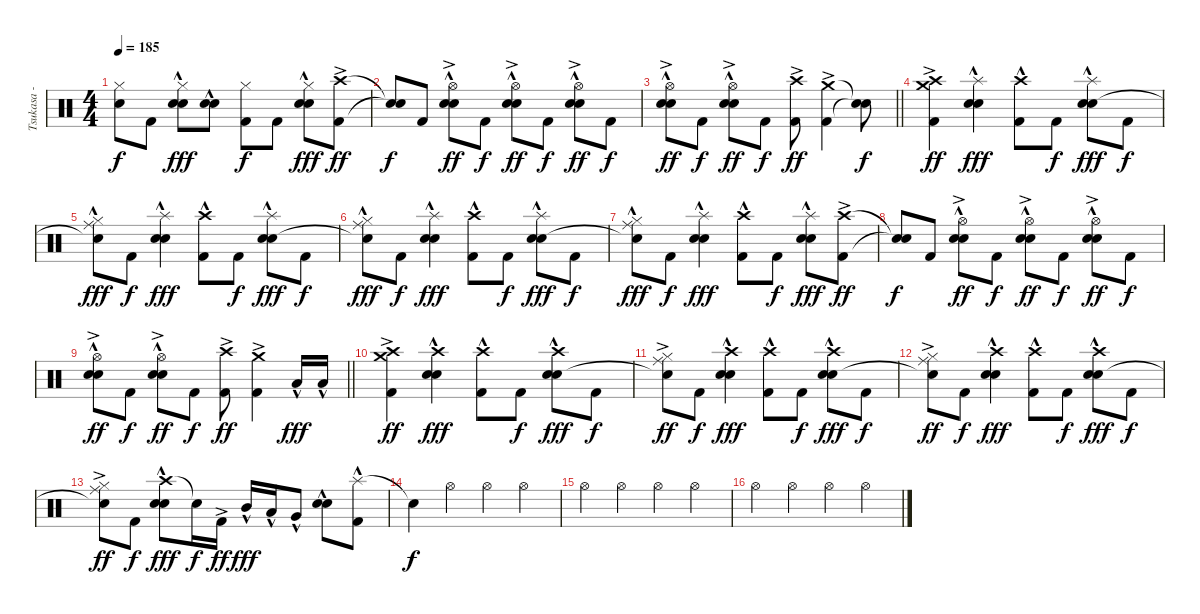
\track ("Tsukasa - Drums" "Tsukasa - ") {instrument percussion}
\staff {score}
\articulation defaults
\ts (4 4)
\tempo 185
\clef neutral
\ks c
("Hi-Hat (closed)" "Snare (hit)"{t}).8{dy f} "Kick (hit) 2".8 ("Hi-Hat (closed)" "Electric Snare (hit)"{hac} "Snare (hit) 2"{hac}).8{dy fff} ("Electric Snare (hit)"{hac} "Snare (hit) 2"{hac}).8 ("Hi-Hat (closed)" "Kick (hit) 2").8{dy f} "Kick (hit) 2".8 ("Hi-Hat (closed)" "Electric Snare (hit)"{hac} "Snare (hit) 2"{hac}).8{dy fff} ("Crash high (hit)"{ac} "Kick (hit) 2").8{dy ff} |
("Snare (hit)"{t} "Snare (hit)"{t}).8{dy f} "Kick (hit) 2".8 ("Hi-Hat (open)" "Electric Snare (hit)"{hac} "Snare (hit) 2"{ac}).8{dy ff} "Kick (hit) 2".8{dy f} ("Hi-Hat (open)" "Electric Snare (hit)"{hac} "Snare (hit) 2"{ac}).8{dy ff} "Kick (hit) 2".8{dy f} ("Hi-Hat (open)" "Electric Snare (hit)"{hac} "Snare (hit) 2"{ac}).8{dy ff} "Kick (hit) 2".8{dy f} |
\barLineRight lightlight
("Hi-Hat (open)" "Electric Snare (hit)"{hac} "Snare (hit) 2"{ac}).8{dy ff} "Kick (hit) 2".8{dy f} ("Hi-Hat (open)" "Electric Snare (hit)"{hac} "Snare (hit) 2"{ac}).8{dy ff} "Kick (hit) 2".8{dy f} ("Crash high (hit)"{ac} "Kick (hit) 2").8{dy ff} ("Crash medium (hit)"{ac} "Kick (hit) 2").4 ("Snare (hit)"{t} "Snare (hit)"{t}).8{dy f} |
\section ("" "")
("Crash medium (hit)"{ac} "Crash high (hit)" "Kick (hit) 2").4{dy ff} ("Splash (hit)"{hac} "Electric Snare (hit)"{hac} "Snare (hit) 2"{hac}).4{dy fff} ("Crash high (hit)"{hac} "Kick (hit) 2").8 "Kick (hit) 2".8{dy f} ("Splash (hit)"{hac} "Electric Snare (hit)"{hac} "Snare (hit) 2"{hac}).8{dy fff} "Kick (hit) 2".8{dy f} |
("Hi-Hat (closed)"{hac} "Ride (middle)" "Snare (hit)"{t}).8{dy fff} "Kick (hit) 2".8{dy f} ("Splash (hit)"{hac} "Electric Snare (hit)"{hac} "Snare (hit) 2"{hac}).4{dy fff} ("Crash high (hit)"{hac} "Kick (hit) 2").8 "Kick (hit) 2".8{dy f} ("Splash (hit)"{hac} "Electric Snare (hit)"{hac} "Snare (hit) 2"{hac}).8{dy fff} "Kick (hit) 2".8{dy f} |
("Hi-Hat (closed)"{hac} "Ride (middle)" "Snare (hit)"{t}).8{dy fff} "Kick (hit) 2".8{dy f} ("Splash (hit)"{hac} "Electric Snare (hit)"{hac} "Snare (hit) 2"{hac}).4{dy fff} ("Crash high (hit)"{hac} "Kick (hit) 2").8 "Kick (hit) 2".8{dy f} ("Splash (hit)"{hac} "Electric Snare (hit)"{hac} "Snare (hit) 2"{hac}).8{dy fff} "Kick (hit) 2".8{dy f} |
("Hi-Hat (closed)"{hac} "Ride (middle)" "Snare (hit)"{t}).8{dy fff} "Kick (hit) 2".8{dy f} ("Splash (hit)"{hac} "Electric Snare (hit)"{hac} "Snare (hit) 2"{hac}).4{dy fff} ("Crash high (hit)"{hac} "Kick (hit) 2").8 "Kick (hit) 2".8{dy f} ("Splash (hit)"{hac} "Electric Snare (hit)"{hac} "Snare (hit) 2"{hac}).8{dy fff} ("Crash high (hit)"{ac} "Kick (hit) 2").8{dy ff} |
("Snare (hit)"{t} "Snare (hit)"{t}).8{dy f} "Kick (hit) 2".8 ("Hi-Hat (open)" "Electric Snare (hit)"{hac} "Snare (hit) 2"{ac}).8{dy ff} "Kick (hit) 2".8{dy f} ("Hi-Hat (open)" "Electric Snare (hit)"{hac} "Snare (hit) 2"{ac}).8{dy ff} "Kick (hit) 2".8{dy f} ("Hi-Hat (open)" "Electric Snare (hit)"{hac} "Snare (hit) 2"{ac}).8{dy ff} "Kick (hit) 2".8{dy f} |
\barLineRight lightlight
("Hi-Hat (open)" "Electric Snare (hit)"{hac} "Snare (hit) 2"{ac}).8{dy ff} "Kick (hit) 2".8{dy f} ("Hi-Hat (open)" "Electric Snare (hit)"{hac} "Snare (hit) 2"{ac}).8{dy ff} "Kick (hit) 2".8{dy f} ("Crash high (hit)"{ac} "Kick (hit) 2").8{dy ff} ("Crash medium (hit)"{ac} "Kick (hit) 2").4 "Low Tom (hit)"{hac}.16{dy fff} "Low Tom (hit)"{hac}.16 |
\section ("" "")
("Crash medium (hit)"{ac} "Crash high (hit)" "Kick (hit) 2").4{dy ff} ("Crash high (hit)"{hac} "Electric Snare (hit)"{hac} "Snare (hit) 2"{hac}).4{dy fff} ("Crash high (hit)"{hac} "Kick (hit) 2").8 "Kick (hit) 2".8{dy f} ("Crash high (hit)"{hac} "Electric Snare (hit)"{hac} "Snare (hit) 2"{hac}).8{dy fff} "Kick (hit) 2".8{dy f} |
("Hi-Hat (closed)"{ac} "Ride (middle)" "Snare (hit)"{t}).8{dy ff} "Kick (hit) 2".8{dy f} ("Crash high (hit)"{hac} "Electric Snare (hit)"{hac} "Snare (hit) 2"{hac}).4{dy fff} ("Crash high (hit)"{hac} "Kick (hit) 2").8 "Kick (hit) 2".8{dy f} ("Crash high (hit)"{hac} "Electric Snare (hit)"{hac} "Snare (hit) 2"{hac}).8{dy fff} "Kick (hit) 2".8{dy f} |
("Hi-Hat (closed)"{ac} "Ride (middle)" "Snare (hit)"{t}).8{dy ff} "Kick (hit) 2".8{dy f} ("Crash high (hit)"{hac} "Electric Snare (hit)"{hac} "Snare (hit) 2"{hac}).4{dy fff} ("Crash high (hit)"{hac} "Kick (hit) 2").8 "Kick (hit) 2".8{dy f} ("Crash high (hit)"{hac} "Electric Snare (hit)"{hac} "Snare (hit) 2"{hac}).8{dy fff} "Kick (hit) 2".8{dy f} |
("Hi-Hat (closed)"{ac} "Ride (middle)" "Snare (hit)"{t}).8{dy ff} "Kick (hit) 2".8{dy f} ("Crash high (hit)"{hac} "Electric Snare (hit)"{hac} "Snare (hit) 2"{hac}).8{dy fff} "Snare (hit)"{t}.16{dy f} "Kick (hit) 2"{ac}.16{dy ff} "Mid Tom (hit)"{hac}.16{dy fff} "Low Tom (hit)"{hac}.16 "Very Low Tom (hit)"{hac}.8 ("Electric Snare (hit)"{hac} "Snare (hit) 2"{hac}).8 ("Splash (hit)"{hac} "Kick (hit) 2").8 |
"Snare (hit)"{t}.4{dy f} "Hi-Hat (open)".4 "Hi-Hat (open)".4 "Hi-Hat (open)".4 |
"Hi-Hat (open)".4 "Hi-Hat (open)".4 "Hi-Hat (open)".4 "Hi-Hat (open)".4 |
"Hi-Hat (open)".4 "Hi-Hat (open)".4 "Hi-Hat (open)".4 "Hi-Hat (open)".4
